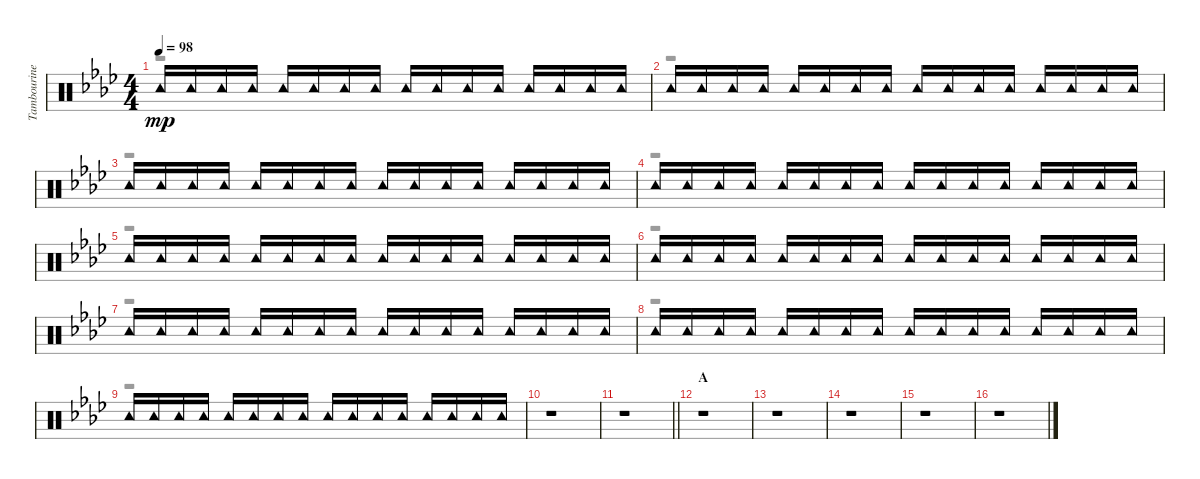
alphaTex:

\track ("Tambourine" "Tambourine") {instrument percussion}
\staff {score}
\articulation defaults
\voice
\ts (4 4)
\tempo 98
\clef neutral
\ks ab "Tambourine (hit)".16{dy mp} "Tambourine (hit)".16 "Tambourine (hit)".16 "Tambourine (hit)".16 "Tambourine (hit)".16 "Tambourine (hit)".16 "Tambourine (hit)".16 "Tambourine (hit)".16 "Tambourine (hit)".16 "Tambourine (hit)".16 "Tambourine (hit)".16 "Tambourine (hit)".16 "Tambourine (hit)".16 "Tambourine (hit)".16 "Tambourine (hit)".16 "Tambourine (hit)".16
|
"Tambourine (hit)".16 "Tambourine (hit)".16 "Tambourine (hit)".16 "Tambourine (hit)".16 "Tambourine (hit)".16 "Tambourine (hit)".16 "Tambourine (hit)".16 "Tambourine (hit)".16 "Tambourine (hit)".16 "Tambourine (hit)".16 "Tambourine (hit)".16 "Tambourine (hit)".16 "Tambourine (hit)".16 "Tambourine (hit)".16 "Tambourine (hit)".16 "Tambourine (hit)".16 |
"Tambourine (hit)".16 "Tambourine (hit)".16 "Tambourine (hit)".16 "Tambourine (hit)".16 "Tambourine (hit)".16 "Tambourine (hit)".16 "Tambourine (hit)".16 "Tambourine (hit)".16 "Tambourine (hit)".16 "Tambourine (hit)".16 "Tambourine (hit)".16 "Tambourine (hit)".16 "Tambourine (hit)".16 "Tambourine (hit)".16 "Tambourine (hit)".16 "Tambourine (hit)".16 |
"Tambourine (hit)".16 "Tambourine (hit)".16 "Tambourine (hit)".16 "Tambourine (hit)".16 "Tambourine (hit)".16 "Tambourine (hit)".16 "Tambourine (hit)".16 "Tambourine (hit)".16 "Tambourine (hit)".16 "Tambourine (hit)".16 "Tambourine (hit)".16 "Tambourine (hit)".16 "Tambourine (hit)".16 "Tambourine (hit)".16 "Tambourine (hit)".16 "Tambourine (hit)".16 |
"Tambourine (hit)".16 "Tambourine (hit)".16 "Tambourine (hit)".16 "Tambourine (hit)".16 "Tambourine (hit)".16 "Tambourine (hit)".16 "Tambourine (hit)".16 "Tambourine (hit)".16 "Tambourine (hit)".16 "Tambourine (hit)".16 "Tambourine (hit)".16 "Tambourine (hit)".16 "Tambourine (hit)".16 "Tambourine (hit)".16 "Tambourine (hit)".16 "Tambourine (hit)".16 |
"Tambourine (hit)".16 "Tambourine (hit)".16 "Tambourine (hit)".16 "Tambourine (hit)".16 "Tambourine (hit)".16 "Tambourine (hit)".16 "Tambourine (hit)".16 "Tambourine (hit)".16 "Tambourine (hit)".16 "Tambourine (hit)".16 "Tambourine (hit)".16 "Tambourine (hit)".16 "Tambourine (hit)".16 "Tambourine (hit)".16 "Tambourine (hit)".16 "Tambourine (hit)".16 |
"Tambourine (hit)".16 "Tambourine (hit)".16 "Tambourine (hit)".16 "Tambourine (hit)".16 "Tambourine (hit)".16 "Tambourine (hit)".16 "Tambourine (hit)".16 "Tambourine (hit)".16 "Tambourine (hit)".16 "Tambourine (hit)".16 "Tambourine (hit)".16 "Tambourine (hit)".16 "Tambourine (hit)".16 "Tambourine (hit)".16 "Tambourine (hit)".16 "Tambourine (hit)".16 |
"Tambourine (hit)".16 "Tambourine (hit)".16 "Tambourine (hit)".16 "Tambourine (hit)".16 "Tambourine (hit)".16 "Tambourine (hit)".16 "Tambourine (hit)".16 "Tambourine (hit)".16 "Tambourine (hit)".16 "Tambourine (hit)".16 "Tambourine (hit)".16 "Tambourine (hit)".16 "Tambourine (hit)".16 "Tambourine (hit)".16 "Tambourine (hit)".16 "Tambourine (hit)".16 |
"Tambourine (hit)".16 "Tambourine (hit)".16 "Tambourine (hit)".16 "Tambourine (hit)".16 "Tambourine (hit)".16 "Tambourine (hit)".16 "Tambourine (hit)".16 "Tambourine (hit)".16 "Tambourine (hit)".16 "Tambourine (hit)".16 "Tambourine (hit)".16 "Tambourine (hit)".16 "Tambourine (hit)".16 "Tambourine (hit)".16 "Tambourine (hit)".16 "Tambourine (hit)".16 |
r.1 |
\barLineRight lightlight
r.1 |
\section ("" "A")
r.1 |
r.1 |
r.1 |
r.1 |
r.1
\voice
\clef neutral
\ottava regular
\simile none
\ks ab
r.1{dy f} |
r.1 |
r.1 |
r.1 |
r.1 |
r.1 |
r.1 |
r.1 |
r.1 |
r.1 |
\barLineRight lightlight
r.1 |
r.1 |
r.1 |
r.1 |
r.1 |
r.1
